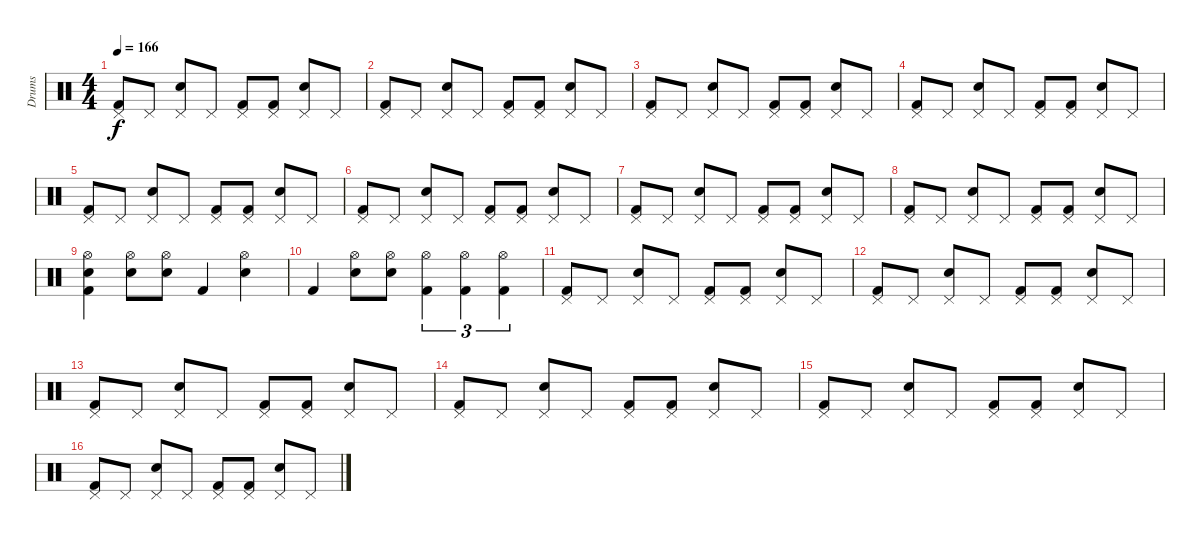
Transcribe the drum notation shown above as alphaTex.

\track ("Drums" "Drums") {instrument percussion}
\staff {score}
\articulation defaults
\ts (4 4)
\tempo 166
\clef neutral
\ks c
("Pedal Hi-Hat (hit)" "Kick (hit) 2").8{dy f} "Pedal Hi-Hat (hit)".8 ("Electric Snare (hit)" "Pedal Hi-Hat (hit)").8 "Pedal Hi-Hat (hit)".8 ("Pedal Hi-Hat (hit)" "Kick (hit) 2").8 ("Pedal Hi-Hat (hit)" "Kick (hit) 2").8 ("Electric Snare (hit)" "Pedal Hi-Hat (hit)").8 "Pedal Hi-Hat (hit)".8 |
("Pedal Hi-Hat (hit)" "Kick (hit) 2").8 "Pedal Hi-Hat (hit)".8 ("Electric Snare (hit)" "Pedal Hi-Hat (hit)").8 "Pedal Hi-Hat (hit)".8 ("Pedal Hi-Hat (hit)" "Kick (hit) 2").8 ("Pedal Hi-Hat (hit)" "Kick (hit) 2").8 ("Electric Snare (hit)" "Pedal Hi-Hat (hit)").8 "Pedal Hi-Hat (hit)".8 |
("Pedal Hi-Hat (hit)" "Kick (hit) 2").8 "Pedal Hi-Hat (hit)".8 ("Electric Snare (hit)" "Pedal Hi-Hat (hit)").8 "Pedal Hi-Hat (hit)".8 ("Pedal Hi-Hat (hit)" "Kick (hit) 2").8 ("Pedal Hi-Hat (hit)" "Kick (hit) 2").8 ("Electric Snare (hit)" "Pedal Hi-Hat (hit)").8 "Pedal Hi-Hat (hit)".8 |
("Pedal Hi-Hat (hit)" "Kick (hit) 2").8 "Pedal Hi-Hat (hit)".8 ("Electric Snare (hit)" "Pedal Hi-Hat (hit)").8 "Pedal Hi-Hat (hit)".8 ("Pedal Hi-Hat (hit)" "Kick (hit) 2").8 ("Pedal Hi-Hat (hit)" "Kick (hit) 2").8 ("Electric Snare (hit)" "Pedal Hi-Hat (hit)").8 "Pedal Hi-Hat (hit)".8 |
("Pedal Hi-Hat (hit)" "Kick (hit) 2").8 "Pedal Hi-Hat (hit)".8 ("Electric Snare (hit)" "Pedal Hi-Hat (hit)").8 "Pedal Hi-Hat (hit)".8 ("Pedal Hi-Hat (hit)" "Kick (hit) 2").8 ("Pedal Hi-Hat (hit)" "Kick (hit) 2").8 ("Electric Snare (hit)" "Pedal Hi-Hat (hit)").8 "Pedal Hi-Hat (hit)".8 |
("Pedal Hi-Hat (hit)" "Kick (hit) 2").8 "Pedal Hi-Hat (hit)".8 ("Electric Snare (hit)" "Pedal Hi-Hat (hit)").8 "Pedal Hi-Hat (hit)".8 ("Pedal Hi-Hat (hit)" "Kick (hit) 2").8 ("Pedal Hi-Hat (hit)" "Kick (hit) 2").8 ("Electric Snare (hit)" "Pedal Hi-Hat (hit)").8 "Pedal Hi-Hat (hit)".8 |
("Pedal Hi-Hat (hit)" "Kick (hit) 2").8 "Pedal Hi-Hat (hit)".8 ("Electric Snare (hit)" "Pedal Hi-Hat (hit)").8 "Pedal Hi-Hat (hit)".8 ("Pedal Hi-Hat (hit)" "Kick (hit) 2").8 ("Pedal Hi-Hat (hit)" "Kick (hit) 2").8 ("Electric Snare (hit)" "Pedal Hi-Hat (hit)").8 "Pedal Hi-Hat (hit)".8 |
("Pedal Hi-Hat (hit)" "Kick (hit) 2").8 "Pedal Hi-Hat (hit)".8 ("Electric Snare (hit)" "Pedal Hi-Hat (hit)").8 "Pedal Hi-Hat (hit)".8 ("Pedal Hi-Hat (hit)" "Kick (hit) 2").8 ("Pedal Hi-Hat (hit)" "Kick (hit) 2").8 ("Electric Snare (hit)" "Pedal Hi-Hat (hit)").8 "Pedal Hi-Hat (hit)".8 |
("Electric Snare (hit)" "Hi-Hat (open)" "Kick (hit) 2").4 ("Electric Snare (hit)" "Hi-Hat (open)").8 ("Electric Snare (hit)" "Hi-Hat (open)").8 "Kick (hit) 2".4 ("Electric Snare (hit)" "Hi-Hat (open)").4 |
"Kick (hit) 2".4 ("Electric Snare (hit)" "Hi-Hat (open)").8 ("Electric Snare (hit)" "Hi-Hat (open)").8 ("Hi-Hat (open)" "Kick (hit) 2").4{tu (3 2)} ("Hi-Hat (open)" "Kick (hit) 2").4{tu (3 2)} ("Hi-Hat (open)" "Kick (hit) 2").4{tu (3 2)} |
("Pedal Hi-Hat (hit)" "Kick (hit) 2").8 "Pedal Hi-Hat (hit)".8 ("Electric Snare (hit)" "Pedal Hi-Hat (hit)").8 "Pedal Hi-Hat (hit)".8 ("Pedal Hi-Hat (hit)" "Kick (hit) 2").8 ("Pedal Hi-Hat (hit)" "Kick (hit) 2").8 ("Electric Snare (hit)" "Pedal Hi-Hat (hit)").8 "Pedal Hi-Hat (hit)".8 |
("Pedal Hi-Hat (hit)" "Kick (hit) 2").8 "Pedal Hi-Hat (hit)".8 ("Electric Snare (hit)" "Pedal Hi-Hat (hit)").8 "Pedal Hi-Hat (hit)".8 ("Pedal Hi-Hat (hit)" "Kick (hit) 2").8 ("Pedal Hi-Hat (hit)" "Kick (hit) 2").8 ("Electric Snare (hit)" "Pedal Hi-Hat (hit)").8 "Pedal Hi-Hat (hit)".8 |
("Pedal Hi-Hat (hit)" "Kick (hit) 2").8 "Pedal Hi-Hat (hit)".8 ("Electric Snare (hit)" "Pedal Hi-Hat (hit)").8 "Pedal Hi-Hat (hit)".8 ("Pedal Hi-Hat (hit)" "Kick (hit) 2").8 ("Pedal Hi-Hat (hit)" "Kick (hit) 2").8 ("Electric Snare (hit)" "Pedal Hi-Hat (hit)").8 "Pedal Hi-Hat (hit)".8 |
("Pedal Hi-Hat (hit)" "Kick (hit) 2").8 "Pedal Hi-Hat (hit)".8 ("Electric Snare (hit)" "Pedal Hi-Hat (hit)").8 "Pedal Hi-Hat (hit)".8 ("Pedal Hi-Hat (hit)" "Kick (hit) 2").8 ("Pedal Hi-Hat (hit)" "Kick (hit) 2").8 ("Electric Snare (hit)" "Pedal Hi-Hat (hit)").8 "Pedal Hi-Hat (hit)".8 |
("Pedal Hi-Hat (hit)" "Kick (hit) 2").8 "Pedal Hi-Hat (hit)".8 ("Electric Snare (hit)" "Pedal Hi-Hat (hit)").8 "Pedal Hi-Hat (hit)".8 ("Pedal Hi-Hat (hit)" "Kick (hit) 2").8 ("Pedal Hi-Hat (hit)" "Kick (hit) 2").8 ("Electric Snare (hit)" "Pedal Hi-Hat (hit)").8 "Pedal Hi-Hat (hit)".8 |
("Pedal Hi-Hat (hit)" "Kick (hit) 2").8 "Pedal Hi-Hat (hit)".8 ("Electric Snare (hit)" "Pedal Hi-Hat (hit)").8 "Pedal Hi-Hat (hit)".8 ("Pedal Hi-Hat (hit)" "Kick (hit) 2").8 ("Pedal Hi-Hat (hit)" "Kick (hit) 2").8 ("Electric Snare (hit)" "Pedal Hi-Hat (hit)").8 "Pedal Hi-Hat (hit)".8
